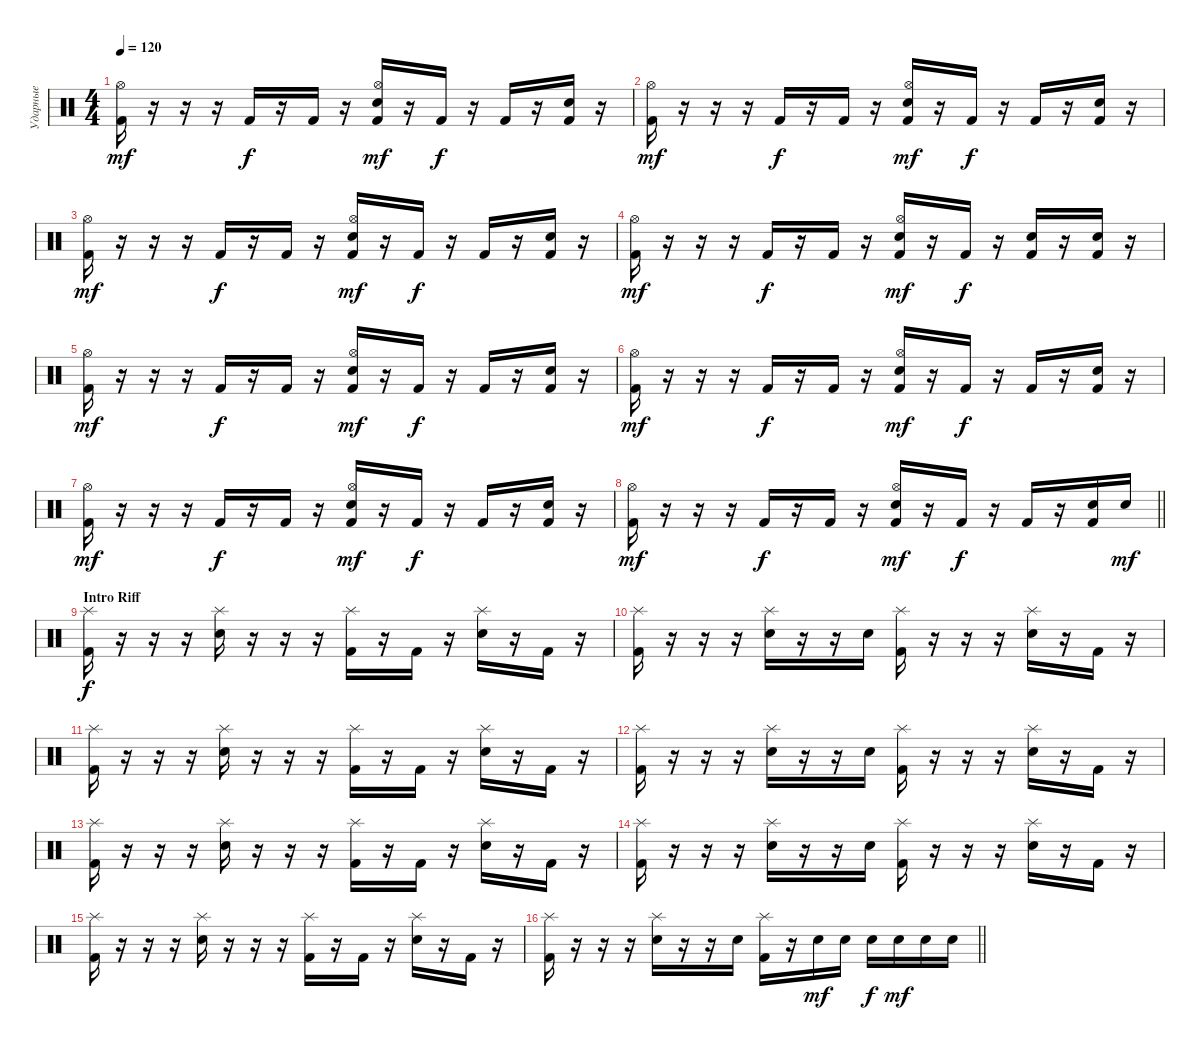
\track ("Ударные" "Ударные") {instrument percussion}
\staff {score}
\articulation defaults
\ts (4 4)
\tempo 120
\clef neutral
\ks c
("Kick (hit) 2" "Hi-Hat (open)").16{dy mf} r.16 r.16 r.16 "Kick (hit) 2".16{dy f} r.16 "Kick (hit) 2".16 r.16 ("Kick (hit) 2" "Hi-Hat (open)" "Snare (hit) 2").16{dy mf} r.16 "Kick (hit) 2".16{dy f} r.16 "Kick (hit) 2".16 r.16 ("Kick (hit) 2" "Snare (hit) 2").16 r.16 |
("Kick (hit) 2" "Hi-Hat (open)").16{dy mf} r.16 r.16 r.16 "Kick (hit) 2".16{dy f} r.16 "Kick (hit) 2".16 r.16 ("Kick (hit) 2" "Hi-Hat (open)" "Snare (hit) 2").16{dy mf} r.16 "Kick (hit) 2".16{dy f} r.16 "Kick (hit) 2".16 r.16 ("Kick (hit) 2" "Snare (hit) 2").16 r.16 |
("Kick (hit) 2" "Hi-Hat (open)").16{dy mf} r.16 r.16 r.16 "Kick (hit) 2".16{dy f} r.16 "Kick (hit) 2".16 r.16 ("Kick (hit) 2" "Hi-Hat (open)" "Snare (hit) 2").16{dy mf} r.16 "Kick (hit) 2".16{dy f} r.16 "Kick (hit) 2".16 r.16 ("Kick (hit) 2" "Snare (hit) 2").16 r.16 |
("Kick (hit) 2" "Hi-Hat (open)").16{dy mf} r.16 r.16 r.16 "Kick (hit) 2".16{dy f} r.16 "Kick (hit) 2".16 r.16 ("Kick (hit) 2" "Hi-Hat (open)" "Snare (hit) 2").16{dy mf} r.16 "Kick (hit) 2".16{dy f} r.16 ("Kick (hit) 2" "Snare (hit) 2").16 r.16 ("Kick (hit) 2" "Snare (hit) 2").16 r.16 |
("Kick (hit) 2" "Hi-Hat (open)").16{dy mf} r.16 r.16 r.16 "Kick (hit) 2".16{dy f} r.16 "Kick (hit) 2".16 r.16 ("Kick (hit) 2" "Hi-Hat (open)" "Snare (hit) 2").16{dy mf} r.16 "Kick (hit) 2".16{dy f} r.16 "Kick (hit) 2".16 r.16 ("Kick (hit) 2" "Snare (hit) 2").16 r.16 |
("Kick (hit) 2" "Hi-Hat (open)").16{dy mf} r.16 r.16 r.16 "Kick (hit) 2".16{dy f} r.16 "Kick (hit) 2".16 r.16 ("Kick (hit) 2" "Hi-Hat (open)" "Snare (hit) 2").16{dy mf} r.16 "Kick (hit) 2".16{dy f} r.16 "Kick (hit) 2".16 r.16 ("Kick (hit) 2" "Snare (hit) 2").16 r.16 |
("Kick (hit) 2" "Hi-Hat (open)").16{dy mf} r.16 r.16 r.16 "Kick (hit) 2".16{dy f} r.16 "Kick (hit) 2".16 r.16 ("Kick (hit) 2" "Hi-Hat (open)" "Snare (hit) 2").16{dy mf} r.16 "Kick (hit) 2".16{dy f} r.16 "Kick (hit) 2".16 r.16 ("Kick (hit) 2" "Snare (hit) 2").16 r.16 |
\barLineRight lightlight
("Kick (hit) 2" "Hi-Hat (open)").16{dy mf} r.16 r.16 r.16 "Kick (hit) 2".16{dy f} r.16 "Kick (hit) 2".16 r.16 ("Kick (hit) 2" "Hi-Hat (open)" "Snare (hit) 2").16{dy mf} r.16 "Kick (hit) 2".16{dy f} r.16 "Kick (hit) 2".16 r.16 ("Kick (hit) 2" "Snare (hit) 2").16 "Snare (hit) 2".16{dy mf} |
\section ("" "Intro Riff")
("Kick (hit) 2" "Splash (hit)").16{dy f} r.16 r.16 r.16 ("Splash (hit)" "Snare (hit) 2").16 r.16 r.16 r.16 ("Kick (hit) 2" "Splash (hit)").16 r.16 "Kick (hit) 2".16 r.16 ("Splash (hit)" "Snare (hit) 2").16 r.16 "Kick (hit) 2".16 r.16 |
("Kick (hit) 2" "Splash (hit)").16 r.16 r.16 r.16 ("Splash (hit)" "Snare (hit) 2").16 r.16 r.16 "Snare (hit) 2".16 ("Kick (hit) 2" "Splash (hit)").16 r.16 r.16 r.16 ("Splash (hit)" "Snare (hit) 2").16 r.16 "Kick (hit) 2".16 r.16 |
("Kick (hit) 2" "Splash (hit)").16 r.16 r.16 r.16 ("Splash (hit)" "Snare (hit) 2").16 r.16 r.16 r.16 ("Kick (hit) 2" "Splash (hit)").16 r.16 "Kick (hit) 2".16 r.16 ("Splash (hit)" "Snare (hit) 2").16 r.16 "Kick (hit) 2".16 r.16 |
("Kick (hit) 2" "Splash (hit)").16 r.16 r.16 r.16 ("Splash (hit)" "Snare (hit) 2").16 r.16 r.16 "Snare (hit) 2".16 ("Kick (hit) 2" "Splash (hit)").16 r.16 r.16 r.16 ("Splash (hit)" "Snare (hit) 2").16 r.16 "Kick (hit) 2".16 r.16 |
("Kick (hit) 2" "Splash (hit)").16 r.16 r.16 r.16 ("Splash (hit)" "Snare (hit) 2").16 r.16 r.16 r.16 ("Kick (hit) 2" "Splash (hit)").16 r.16 "Kick (hit) 2".16 r.16 ("Splash (hit)" "Snare (hit) 2").16 r.16 "Kick (hit) 2".16 r.16 |
("Kick (hit) 2" "Splash (hit)").16 r.16 r.16 r.16 ("Splash (hit)" "Snare (hit) 2").16 r.16 r.16 "Snare (hit) 2".16 ("Kick (hit) 2" "Splash (hit)").16 r.16 r.16 r.16 ("Splash (hit)" "Snare (hit) 2").16 r.16 "Kick (hit) 2".16 r.16 |
("Kick (hit) 2" "Splash (hit)").16 r.16 r.16 r.16 ("Splash (hit)" "Snare (hit) 2").16 r.16 r.16 r.16 ("Kick (hit) 2" "Splash (hit)").16 r.16 "Kick (hit) 2".16 r.16 ("Splash (hit)" "Snare (hit) 2").16 r.16 "Kick (hit) 2".16 r.16 |
\barLineRight lightlight
("Kick (hit) 2" "Splash (hit)").16 r.16 r.16 r.16 ("Splash (hit)" "Snare (hit) 2").16 r.16 r.16 "Snare (hit) 2".16 ("Kick (hit) 2" "Splash (hit)").16 r.16 "Snare (hit) 2".16{dy mf} "Snare (hit) 2".16 "Snare (hit) 2".16{dy f} "Snare (hit) 2".16{dy mf} "Snare (hit) 2".16 "Snare (hit) 2".16
